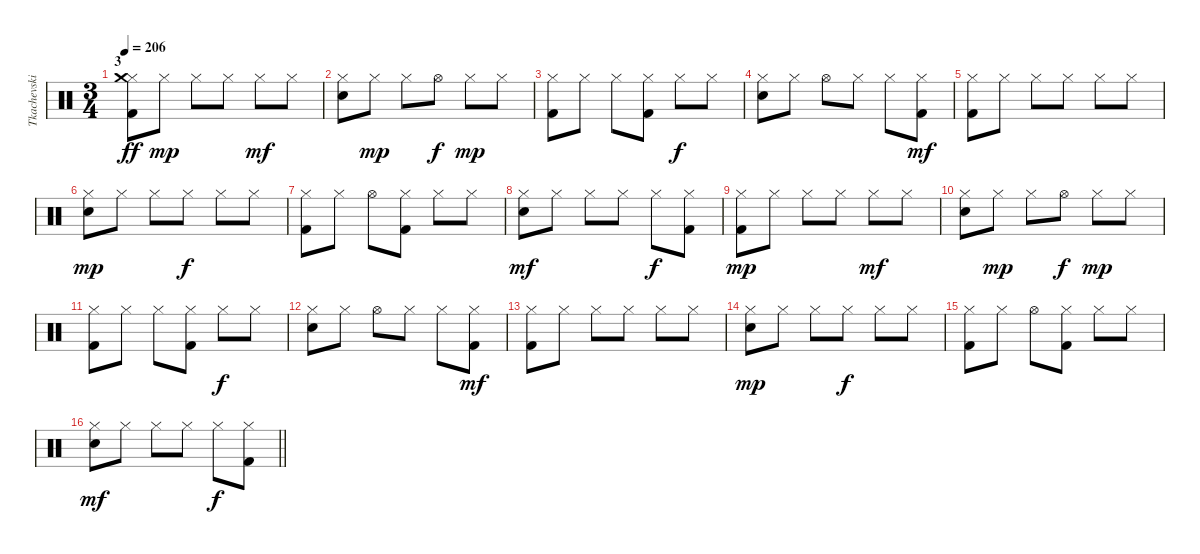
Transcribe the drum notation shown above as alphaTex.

\track ("Tkachevskiy A" "Tkachevski") {instrument percussion}
\staff {score}
\articulation defaults
\ts (3 4)
\section ("" "3")
\tempo 206
\clef neutral
\ks c
("Hi-Hat (closed)" "Crash medium (hit)" "Kick (hit) 2").8{dy ff} "Hi-Hat (closed)".8{dy mp} "Hi-Hat (closed)".8 "Hi-Hat (closed)".8 "Hi-Hat (closed)".8{dy mf} "Hi-Hat (closed)".8 |
("Hi-Hat (closed)" "Snare (hit) 2").8 "Hi-Hat (closed)".8{dy mp} "Hi-Hat (closed)".8 "Hi-Hat (open)".8{dy f} "Hi-Hat (closed)".8{dy mp} "Hi-Hat (closed)".8 |
("Hi-Hat (closed)" "Kick (hit) 2").8 "Hi-Hat (closed)".8 "Hi-Hat (closed)".8 ("Hi-Hat (closed)" "Kick (hit) 2").8 "Hi-Hat (closed)".8{dy f} "Hi-Hat (closed)".8 |
("Hi-Hat (closed)" "Snare (hit) 2").8 "Hi-Hat (closed)".8 "Hi-Hat (open)".8 "Hi-Hat (closed)".8 "Hi-Hat (closed)".8 ("Hi-Hat (closed)" "Kick (hit) 2").8{dy mf} |
("Hi-Hat (closed)" "Kick (hit) 2").8 "Hi-Hat (closed)".8 "Hi-Hat (closed)".8 "Hi-Hat (closed)".8 "Hi-Hat (closed)".8 "Hi-Hat (closed)".8 |
("Hi-Hat (closed)" "Snare (hit) 2").8{dy mp} "Hi-Hat (closed)".8 "Hi-Hat (closed)".8 "Hi-Hat (closed)".8{dy f} "Hi-Hat (closed)".8 "Hi-Hat (closed)".8 |
("Hi-Hat (closed)" "Kick (hit) 2").8 "Hi-Hat (closed)".8 "Hi-Hat (open)".8 ("Hi-Hat (closed)" "Kick (hit) 2").8 "Hi-Hat (closed)".8 "Hi-Hat (closed)".8 |
("Hi-Hat (closed)" "Snare (hit) 2").8{dy mf} "Hi-Hat (closed)".8 "Hi-Hat (closed)".8 "Hi-Hat (closed)".8 "Hi-Hat (closed)".8{dy f} ("Hi-Hat (closed)" "Kick (hit) 2").8 |
("Hi-Hat (closed)" "Kick (hit) 2").8{dy mp} "Hi-Hat (closed)".8 "Hi-Hat (closed)".8 "Hi-Hat (closed)".8 "Hi-Hat (closed)".8{dy mf} "Hi-Hat (closed)".8 |
("Hi-Hat (closed)" "Snare (hit) 2").8 "Hi-Hat (closed)".8{dy mp} "Hi-Hat (closed)".8 "Hi-Hat (open)".8{dy f} "Hi-Hat (closed)".8{dy mp} "Hi-Hat (closed)".8 |
("Hi-Hat (closed)" "Kick (hit) 2").8 "Hi-Hat (closed)".8 "Hi-Hat (closed)".8 ("Hi-Hat (closed)" "Kick (hit) 2").8 "Hi-Hat (closed)".8{dy f} "Hi-Hat (closed)".8 |
("Hi-Hat (closed)" "Snare (hit) 2").8 "Hi-Hat (closed)".8 "Hi-Hat (open)".8 "Hi-Hat (closed)".8 "Hi-Hat (closed)".8 ("Hi-Hat (closed)" "Kick (hit) 2").8{dy mf} |
("Hi-Hat (closed)" "Kick (hit) 2").8 "Hi-Hat (closed)".8 "Hi-Hat (closed)".8 "Hi-Hat (closed)".8 "Hi-Hat (closed)".8 "Hi-Hat (closed)".8 |
("Hi-Hat (closed)" "Snare (hit) 2").8{dy mp} "Hi-Hat (closed)".8 "Hi-Hat (closed)".8 "Hi-Hat (closed)".8{dy f} "Hi-Hat (closed)".8 "Hi-Hat (closed)".8 |
("Hi-Hat (closed)" "Kick (hit) 2").8 "Hi-Hat (closed)".8 "Hi-Hat (open)".8 ("Hi-Hat (closed)" "Kick (hit) 2").8 "Hi-Hat (closed)".8 "Hi-Hat (closed)".8 |
\barLineRight lightlight
("Hi-Hat (closed)" "Snare (hit) 2").8{dy mf} "Hi-Hat (closed)".8 "Hi-Hat (closed)".8 "Hi-Hat (closed)".8 "Hi-Hat (closed)".8{dy f} ("Hi-Hat (closed)" "Kick (hit) 2").8
